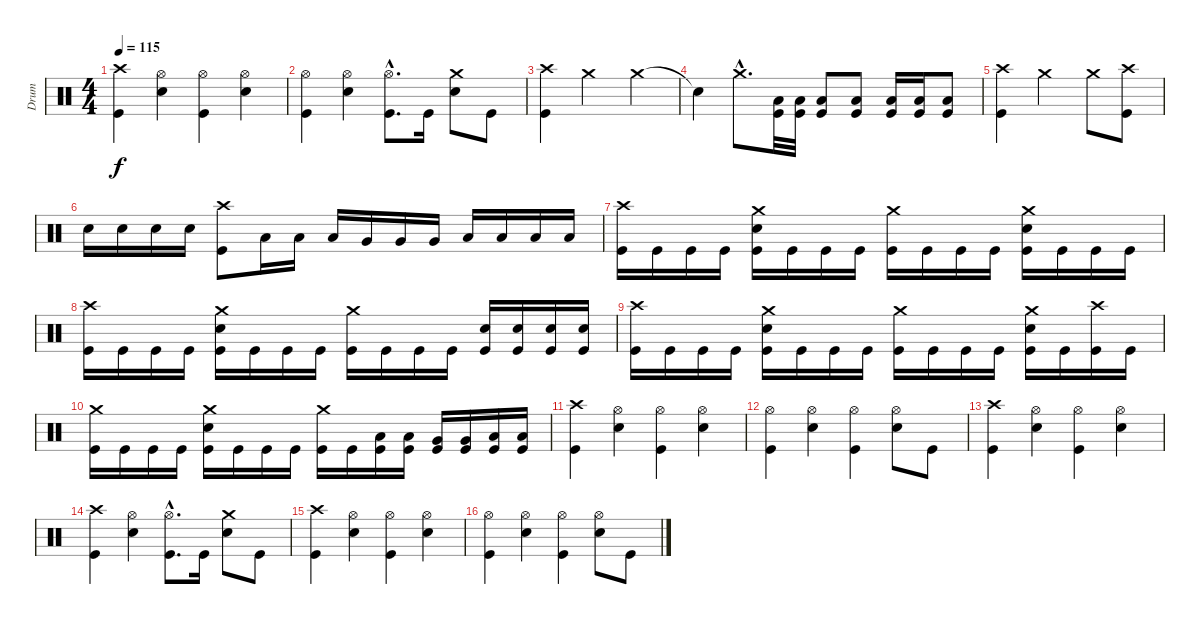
\track ("Drum" "Drum") {instrument percussion}
\staff {score}
\articulation defaults
\ts (4 4)
\tempo 115
\clef neutral
\ks c
("Kick (hit)" "Crash high (hit)").4{dy f} ("Hi-Hat (open)" "Snare (hit) 2").4 ("Kick (hit)" "Hi-Hat (open)").4 ("Hi-Hat (open)" "Snare (hit) 2").4 |
("Kick (hit)" "Hi-Hat (open)").4 ("Hi-Hat (open)" "Snare (hit) 2").4 ("Kick (hit)"{hac} "Hi-Hat (open)"{hac}).8{d} "Kick (hit)".16 ("Crash medium (hit)" "Snare (hit) 2").8 "Kick (hit)".8 |
("Kick (hit)" "Crash high (hit)").4 "Crash medium (hit)".2 "Crash medium (hit)".4 |
"Snare (hit)"{t}.4 "Crash medium (hit)"{hac}.8{d} ("Kick (hit)" "Low Floor Tom (hit)").32 ("Kick (hit)" "Low Floor Tom (hit)").32 ("Kick (hit)" "Low Floor Tom (hit)").8 ("Kick (hit)" "Low Floor Tom (hit)").8 ("Kick (hit)" "Low Floor Tom (hit)").16 ("Kick (hit)" "Low Floor Tom (hit)").16 ("Kick (hit)" "Low Floor Tom (hit)").8 |
("Kick (hit)" "Crash high (hit)").4 "Crash medium (hit)".2 "Crash medium (hit)".8 ("Kick (hit)" "Crash high (hit)").8 |
"Snare (hit) 2".16 "Snare (hit) 2".16 "Snare (hit) 2".16 "Snare (hit) 2".16 ("Kick (hit)" "Crash high (hit)").8 "Low Tom (hit)".16 "Low Tom (hit)".16 "Low Tom (hit)".16 "Very Low Tom (hit)".16 "Very Low Tom (hit)".16 "Very Low Tom (hit)".16 "Low Floor Tom (hit)".16 "Low Floor Tom (hit)".16 "Low Floor Tom (hit)".16 "Low Floor Tom (hit)".16 |
("Kick (hit)" "Crash high (hit)").16 "Kick (hit)".16 "Kick (hit)".16 "Kick (hit)".16 ("Kick (hit)" "Crash medium (hit)" "Snare (hit) 2").16 "Kick (hit)".16 "Kick (hit)".16 "Kick (hit)".16 ("Kick (hit)" "Crash medium (hit)").16 "Kick (hit)".16 "Kick (hit)".16 "Kick (hit)".16 ("Kick (hit)" "Crash medium (hit)" "Snare (hit) 2").16 "Kick (hit)".16 "Kick (hit)".16 "Kick (hit)".16 |
("Kick (hit)" "Crash high (hit)").16 "Kick (hit)".16 "Kick (hit)".16 "Kick (hit)".16 ("Kick (hit)" "Crash medium (hit)" "Snare (hit) 2").16 "Kick (hit)".16 "Kick (hit)".16 "Kick (hit)".16 ("Kick (hit)" "Crash medium (hit)").16 "Kick (hit)".16 "Kick (hit)".16 "Kick (hit)".16 ("Kick (hit)" "Snare (hit) 2").16 ("Kick (hit)" "Snare (hit) 2").16 ("Kick (hit)" "Snare (hit) 2").16 ("Kick (hit)" "Snare (hit) 2").16 |
("Kick (hit)" "Crash high (hit)").16 "Kick (hit)".16 "Kick (hit)".16 "Kick (hit)".16 ("Kick (hit)" "Crash medium (hit)" "Snare (hit) 2").16 "Kick (hit)".16 "Kick (hit)".16 "Kick (hit)".16 ("Kick (hit)" "Crash medium (hit)").16 "Kick (hit)".16 "Kick (hit)".16 "Kick (hit)".16 ("Kick (hit)" "Crash medium (hit)" "Snare (hit) 2").16 "Kick (hit)".16 ("Kick (hit)" "Crash high (hit)").16 "Kick (hit)".16 |
("Kick (hit)" "Crash medium (hit)").16 "Kick (hit)".16 "Kick (hit)".16 "Kick (hit)".16 ("Kick (hit)" "Crash medium (hit)" "Snare (hit) 2").16 "Kick (hit)".16 "Kick (hit)".16 "Kick (hit)".16 ("Kick (hit)" "Crash medium (hit)").16 "Kick (hit)".16 ("Kick (hit)" "Low Tom (hit)").16 ("Kick (hit)" "Low Tom (hit)").16 ("Kick (hit)" "Very Low Tom (hit)").16 ("Kick (hit)" "Very Low Tom (hit)").16 ("Kick (hit)" "Low Floor Tom (hit)").16 ("Kick (hit)" "Low Floor Tom (hit)").16 |
("Kick (hit)" "Crash high (hit)").4 ("Hi-Hat (open)" "Snare (hit) 2").4 ("Kick (hit)" "Hi-Hat (open)").4 ("Hi-Hat (open)" "Snare (hit) 2").4 |
("Kick (hit)" "Hi-Hat (open)").4 ("Hi-Hat (open)" "Snare (hit) 2").4 ("Kick (hit)" "Hi-Hat (open)").4 ("Hi-Hat (open)" "Snare (hit) 2").8 "Kick (hit)".8 |
("Kick (hit)" "Crash high (hit)").4 ("Hi-Hat (open)" "Snare (hit) 2").4 ("Kick (hit)" "Hi-Hat (open)").4 ("Hi-Hat (open)" "Snare (hit) 2").4 |
("Kick (hit)" "Crash high (hit)").4 ("Hi-Hat (open)" "Snare (hit) 2").4 ("Kick (hit)"{hac} "Hi-Hat (open)"{hac}).8{d} "Kick (hit)".16 ("Crash medium (hit)" "Snare (hit) 2").8 "Kick (hit)".8 |
("Kick (hit)" "Crash high (hit)").4 ("Hi-Hat (open)" "Snare (hit) 2").4 ("Kick (hit)" "Hi-Hat (open)").4 ("Hi-Hat (open)" "Snare (hit) 2").4 |
("Kick (hit)" "Hi-Hat (open)").4 ("Hi-Hat (open)" "Snare (hit) 2").4 ("Kick (hit)" "Hi-Hat (open)").4 ("Hi-Hat (open)" "Snare (hit) 2").8 "Kick (hit)".8
